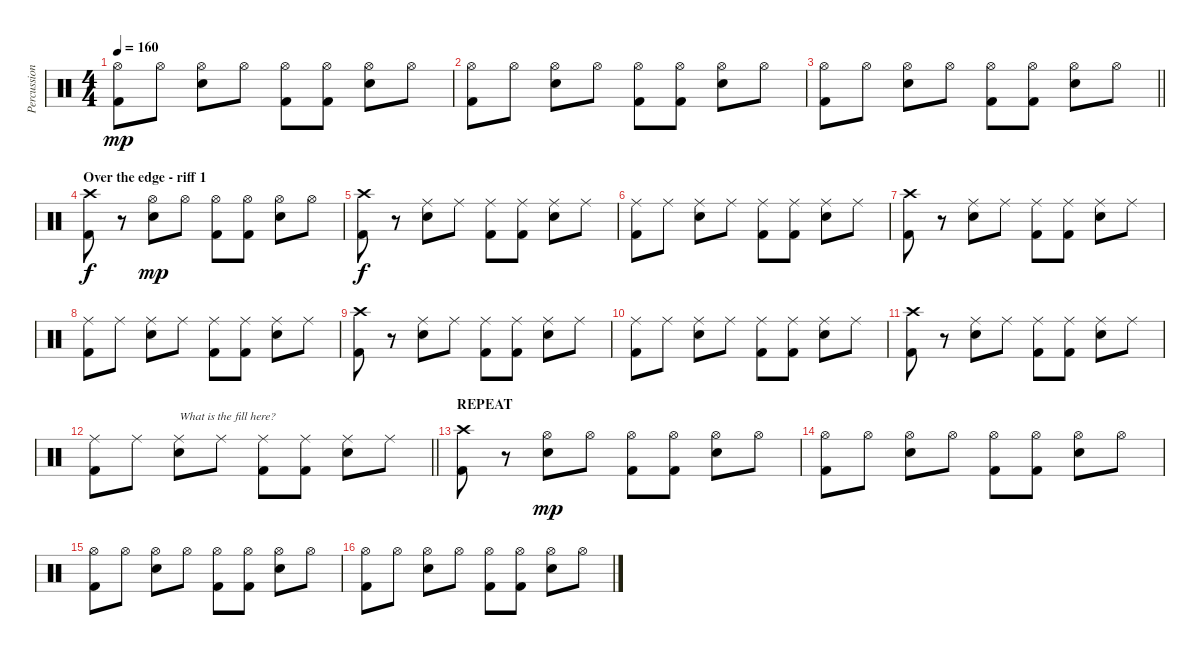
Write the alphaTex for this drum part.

\track ("Percussion - album" "Percussion") {mute instrument percussion}
\staff {score}
\articulation defaults
\ts (4 4)
\tempo 160
\clef neutral
\ks c
("Hi-Hat (open)" "Kick (hit) 2").8{dy mp} "Hi-Hat (open)".8 ("Hi-Hat (open)" "Snare (hit) 2").8 "Hi-Hat (open)".8 ("Hi-Hat (open)" "Kick (hit) 2").8 ("Hi-Hat (open)" "Kick (hit) 2").8 ("Hi-Hat (open)" "Snare (hit) 2").8 "Hi-Hat (open)".8 |
("Hi-Hat (open)" "Kick (hit) 2").8 "Hi-Hat (open)".8 ("Hi-Hat (open)" "Snare (hit) 2").8 "Hi-Hat (open)".8 ("Hi-Hat (open)" "Kick (hit) 2").8 ("Hi-Hat (open)" "Kick (hit) 2").8 ("Hi-Hat (open)" "Snare (hit) 2").8 "Hi-Hat (open)".8 |
\barLineRight lightlight
("Hi-Hat (open)" "Kick (hit) 2").8 "Hi-Hat (open)".8 ("Hi-Hat (open)" "Snare (hit) 2").8 "Hi-Hat (open)".8 ("Hi-Hat (open)" "Kick (hit) 2").8 ("Hi-Hat (open)" "Kick (hit) 2").8 ("Hi-Hat (open)" "Snare (hit) 2").8 "Hi-Hat (open)".8 |
\section ("" "Over the edge - riff 1")
("Crash high (hit)" "Kick (hit) 2").8{dy f} r.8 ("Hi-Hat (open)" "Snare (hit) 2").8{dy mp} "Hi-Hat (open)".8 ("Hi-Hat (open)" "Kick (hit) 2").8 ("Hi-Hat (open)" "Kick (hit) 2").8 ("Hi-Hat (open)" "Snare (hit) 2").8 "Hi-Hat (open)".8 |
("Crash high (hit)" "Kick (hit) 2").8{dy f} r.8 ("Ride (middle)" "Snare (hit) 2").8 "Ride (middle)".8 ("Ride (middle)" "Kick (hit) 2").8 ("Ride (middle)" "Kick (hit) 2").8 ("Ride (middle)" "Snare (hit) 2").8 "Ride (middle)".8 |
("Ride (middle)" "Kick (hit) 2").8 "Ride (middle)".8 ("Ride (middle)" "Snare (hit) 2").8 "Ride (middle)".8 ("Ride (middle)" "Kick (hit) 2").8 ("Ride (middle)" "Kick (hit) 2").8 ("Ride (middle)" "Snare (hit) 2").8 "Ride (middle)".8 |
("Crash high (hit)" "Kick (hit) 2").8 r.8 ("Ride (middle)" "Snare (hit) 2").8 "Ride (middle)".8 ("Ride (middle)" "Kick (hit) 2").8 ("Ride (middle)" "Kick (hit) 2").8 ("Ride (middle)" "Snare (hit) 2").8 "Ride (middle)".8 |
("Ride (middle)" "Kick (hit) 2").8 "Ride (middle)".8 ("Ride (middle)" "Snare (hit) 2").8 "Ride (middle)".8 ("Ride (middle)" "Kick (hit) 2").8 ("Ride (middle)" "Kick (hit) 2").8 ("Ride (middle)" "Snare (hit) 2").8 "Ride (middle)".8 |
("Crash high (hit)" "Kick (hit) 2").8 r.8 ("Ride (middle)" "Snare (hit) 2").8 "Ride (middle)".8 ("Ride (middle)" "Kick (hit) 2").8 ("Ride (middle)" "Kick (hit) 2").8 ("Ride (middle)" "Snare (hit) 2").8 "Ride (middle)".8 |
("Ride (middle)" "Kick (hit) 2").8 "Ride (middle)".8 ("Ride (middle)" "Snare (hit) 2").8 "Ride (middle)".8 ("Ride (middle)" "Kick (hit) 2").8 ("Ride (middle)" "Kick (hit) 2").8 ("Ride (middle)" "Snare (hit) 2").8 "Ride (middle)".8 |
("Crash high (hit)" "Kick (hit) 2").8 r.8 ("Ride (middle)" "Snare (hit) 2").8 "Ride (middle)".8 ("Ride (middle)" "Kick (hit) 2").8 ("Ride (middle)" "Kick (hit) 2").8 ("Ride (middle)" "Snare (hit) 2").8 "Ride (middle)".8 |
\barLineRight lightlight
("Ride (middle)" "Kick (hit) 2").8 "Ride (middle)".8 ("Ride (middle)" "Snare (hit) 2").8{txt "What is the fill here?"} "Ride (middle)".8 ("Ride (middle)" "Kick (hit) 2").8 ("Ride (middle)" "Kick (hit) 2").8 ("Ride (middle)" "Snare (hit) 2").8 "Ride (middle)".8 |
\section ("" "REPEAT")
("Crash high (hit)" "Kick (hit) 2").8 r.8 ("Hi-Hat (open)" "Snare (hit) 2").8{dy mp} "Hi-Hat (open)".8 ("Hi-Hat (open)" "Kick (hit) 2").8 ("Hi-Hat (open)" "Kick (hit) 2").8 ("Hi-Hat (open)" "Snare (hit) 2").8 "Hi-Hat (open)".8 |
("Hi-Hat (open)" "Kick (hit) 2").8 "Hi-Hat (open)".8 ("Hi-Hat (open)" "Snare (hit) 2").8 "Hi-Hat (open)".8 ("Hi-Hat (open)" "Kick (hit) 2").8 ("Hi-Hat (open)" "Kick (hit) 2").8 ("Hi-Hat (open)" "Snare (hit) 2").8 "Hi-Hat (open)".8 |
("Hi-Hat (open)" "Kick (hit) 2").8 "Hi-Hat (open)".8 ("Hi-Hat (open)" "Snare (hit) 2").8 "Hi-Hat (open)".8 ("Hi-Hat (open)" "Kick (hit) 2").8 ("Hi-Hat (open)" "Kick (hit) 2").8 ("Hi-Hat (open)" "Snare (hit) 2").8 "Hi-Hat (open)".8 |
("Hi-Hat (open)" "Kick (hit) 2").8 "Hi-Hat (open)".8 ("Hi-Hat (open)" "Snare (hit) 2").8 "Hi-Hat (open)".8 ("Hi-Hat (open)" "Kick (hit) 2").8 ("Hi-Hat (open)" "Kick (hit) 2").8 ("Hi-Hat (open)" "Snare (hit) 2").8 "Hi-Hat (open)".8
